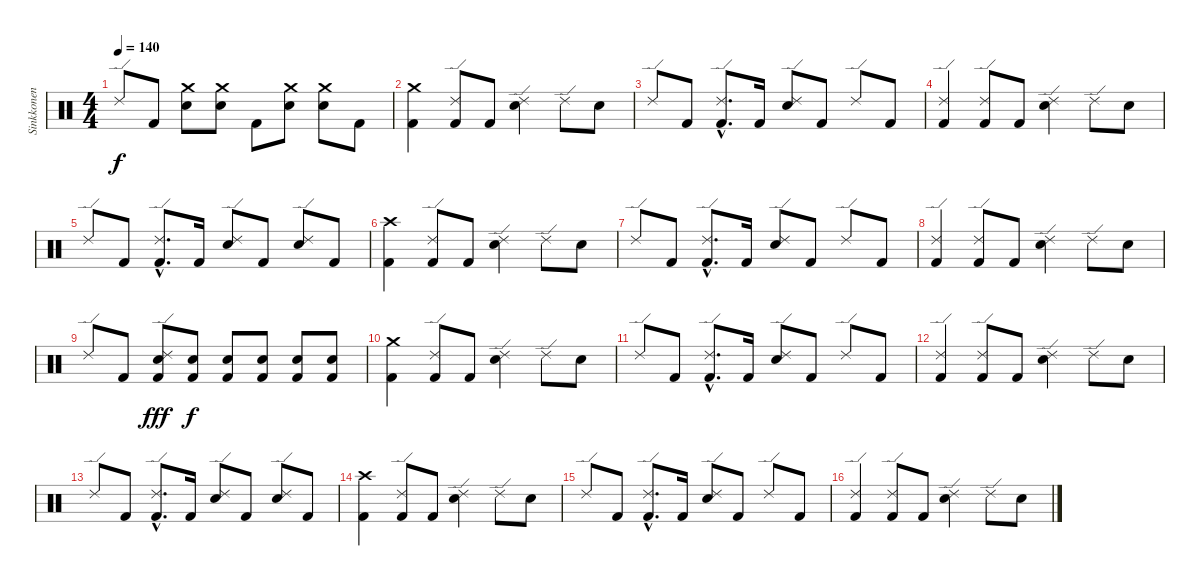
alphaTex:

\track ("Sinkkonen" "Sinkkonen") {instrument percussion}
\staff {score}
\articulation defaults
\ts (4 4)
\tempo 140
\clef neutral
\ks c "Ride (edge) 2".8{dy f} "Kick (hit) 2".8
("Crash medium (hit)" "Snare (hit) 2").8 ("Crash medium (hit)" "Snare (hit) 2").8 "Kick (hit) 2".8 ("Crash medium (hit)" "Snare (hit) 2").8 ("Crash medium (hit)" "Snare (hit) 2").8 "Kick (hit) 2".8 |
("Kick (hit) 2" "Crash medium (hit)").4 ("Kick (hit) 2" "Ride (edge) 2").8 "Kick (hit) 2".8 ("Ride (edge) 2" "Snare (hit) 2").4 "Ride (edge) 2".8 "Snare (hit) 2".8 |
"Ride (edge) 2".8 "Kick (hit) 2".8 ("Kick (hit) 2"{hac} "Ride (edge) 2"{hac}).8{d} "Kick (hit) 2".16 ("Ride (edge) 2" "Snare (hit) 2").8 "Kick (hit) 2".8 "Ride (edge) 2".8 "Kick (hit) 2".8 |
("Kick (hit) 2" "Ride (edge) 2").4 ("Kick (hit) 2" "Ride (edge) 2").8 "Kick (hit) 2".8 ("Ride (edge) 2" "Snare (hit) 2").4 "Ride (edge) 2".8 "Snare (hit) 2".8 |
"Ride (edge) 2".8 "Kick (hit) 2".8 ("Kick (hit) 2"{hac} "Ride (edge) 2"{hac}).8{d} "Kick (hit) 2".16 ("Ride (edge) 2" "Snare (hit) 2").8 "Kick (hit) 2".8 ("Ride (edge) 2" "Snare (hit) 2").8 "Kick (hit) 2".8 |
("Kick (hit) 2" "Crash high (hit)").4 ("Kick (hit) 2" "Ride (edge) 2").8 "Kick (hit) 2".8 ("Ride (edge) 2" "Snare (hit) 2").4 "Ride (edge) 2".8 "Snare (hit) 2".8 |
"Ride (edge) 2".8 "Kick (hit) 2".8 ("Kick (hit) 2"{hac} "Ride (edge) 2"{hac}).8{d} "Kick (hit) 2".16 ("Ride (edge) 2" "Snare (hit) 2").8 "Kick (hit) 2".8 "Ride (edge) 2".8 "Kick (hit) 2".8 |
("Kick (hit) 2" "Ride (edge) 2").4 ("Kick (hit) 2" "Ride (edge) 2").8 "Kick (hit) 2".8 ("Ride (edge) 2" "Snare (hit) 2").4 "Ride (edge) 2".8 "Snare (hit) 2".8 |
"Ride (edge) 2".8 "Kick (hit) 2".8 ("Kick (hit) 2" "Ride (edge) 2" "Snare (hit) 2").8{dy fff} ("Kick (hit) 2" "Snare (hit) 2").8{dy f} ("Kick (hit) 2" "Snare (hit) 2").8 ("Kick (hit) 2" "Snare (hit) 2").8 ("Kick (hit) 2" "Snare (hit) 2").8 ("Kick (hit) 2" "Snare (hit) 2").8 |
("Kick (hit) 2" "Crash medium (hit)").4{volume 12} ("Kick (hit) 2" "Ride (edge) 2").8 "Kick (hit) 2".8 ("Ride (edge) 2" "Snare (hit) 2").4 "Ride (edge) 2".8 "Snare (hit) 2".8 |
"Ride (edge) 2".8 "Kick (hit) 2".8 ("Kick (hit) 2"{hac} "Ride (edge) 2"{hac}).8{d} "Kick (hit) 2".16 ("Ride (edge) 2" "Snare (hit) 2").8 "Kick (hit) 2".8 "Ride (edge) 2".8 "Kick (hit) 2".8 |
("Kick (hit) 2" "Ride (edge) 2").4 ("Kick (hit) 2" "Ride (edge) 2").8 "Kick (hit) 2".8 ("Ride (edge) 2" "Snare (hit) 2").4 "Ride (edge) 2".8 "Snare (hit) 2".8 |
"Ride (edge) 2".8 "Kick (hit) 2".8 ("Kick (hit) 2"{hac} "Ride (edge) 2"{hac}).8{d} "Kick (hit) 2".16 ("Ride (edge) 2" "Snare (hit) 2").8 "Kick (hit) 2".8 ("Ride (edge) 2" "Snare (hit) 2").8 "Kick (hit) 2".8 |
("Kick (hit) 2" "Crash high (hit)").4{volume 9} ("Kick (hit) 2" "Ride (edge) 2").8 "Kick (hit) 2".8 ("Ride (edge) 2" "Snare (hit) 2").4 "Ride (edge) 2".8 "Snare (hit) 2".8 |
"Ride (edge) 2".8 "Kick (hit) 2".8 ("Kick (hit) 2"{hac} "Ride (edge) 2"{hac}).8{d} "Kick (hit) 2".16 ("Ride (edge) 2" "Snare (hit) 2").8 "Kick (hit) 2".8 "Ride (edge) 2".8 "Kick (hit) 2".8 |
("Kick (hit) 2" "Ride (edge) 2").4 ("Kick (hit) 2" "Ride (edge) 2").8 "Kick (hit) 2".8 ("Ride (edge) 2" "Snare (hit) 2").4 "Ride (edge) 2".8 "Snare (hit) 2".8
